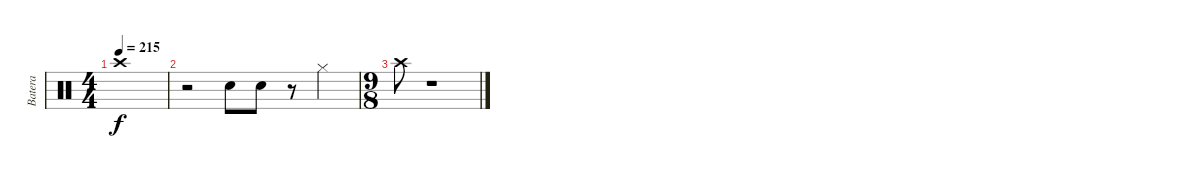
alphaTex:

\track ("Batera" "Batera") {instrument percussion}
\staff {score}
\articulation defaults
\ts (4 4)
\tempo 215
\clef neutral
\ks c "Crash high (hit)".1{dy f}
|
r.2 "Electric Snare (hit)".8 "Electric Snare (hit)".8 r.8 "Hi-Hat (closed)".4 |
\ts (9 8)
"Crash high (hit)".8 r.1
